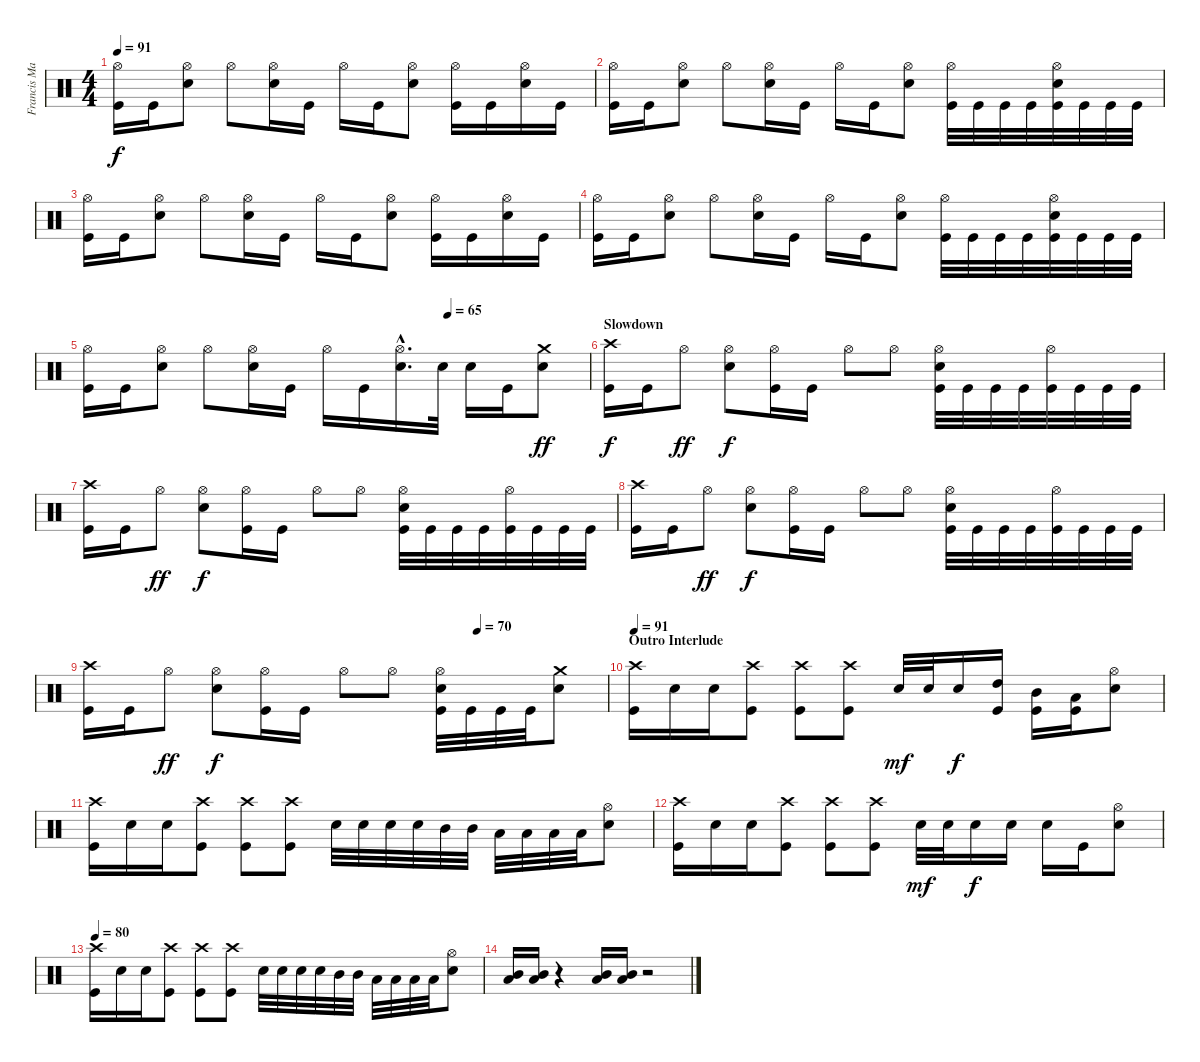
\track ("Francis Mark" "Francis Ma") {instrument percussion}
\staff {score}
\articulation defaults
\ts (4 4)
\tempo 91
\clef neutral
\ks c
("Hi-Hat (open)" "Kick (hit)").16{dy f} "Kick (hit)".16 ("Hi-Hat (open)" "Electric Snare (hit)").8 "Hi-Hat (open)".8 ("Hi-Hat (open)" "Electric Snare (hit)").16 "Kick (hit)".16 "Hi-Hat (open)".16 "Kick (hit)".16 ("Hi-Hat (open)" "Electric Snare (hit)").8 ("Hi-Hat (open)" "Kick (hit)").16 "Kick (hit)".16 ("Hi-Hat (open)" "Electric Snare (hit)").16 "Kick (hit)".16 |
("Hi-Hat (open)" "Kick (hit)").16 "Kick (hit)".16 ("Hi-Hat (open)" "Electric Snare (hit)").8 "Hi-Hat (open)".8 ("Hi-Hat (open)" "Electric Snare (hit)").16 "Kick (hit)".16 "Hi-Hat (open)".16 "Kick (hit)".16 ("Hi-Hat (open)" "Electric Snare (hit)").8 ("Hi-Hat (open)" "Kick (hit)").32 "Kick (hit)".32 "Kick (hit)".32 "Kick (hit)".32 ("Hi-Hat (open)" "Electric Snare (hit)" "Kick (hit)").32 "Kick (hit)".32 "Kick (hit)".32 "Kick (hit)".32 |
("Hi-Hat (open)" "Kick (hit)").16 "Kick (hit)".16 ("Hi-Hat (open)" "Electric Snare (hit)").8 "Hi-Hat (open)".8 ("Hi-Hat (open)" "Electric Snare (hit)").16 "Kick (hit)".16 "Hi-Hat (open)".16 "Kick (hit)".16 ("Hi-Hat (open)" "Electric Snare (hit)").8 ("Hi-Hat (open)" "Kick (hit)").16 "Kick (hit)".16 ("Hi-Hat (open)" "Electric Snare (hit)").16 "Kick (hit)".16 |
("Hi-Hat (open)" "Kick (hit)").16 "Kick (hit)".16 ("Hi-Hat (open)" "Electric Snare (hit)").8 "Hi-Hat (open)".8 ("Hi-Hat (open)" "Electric Snare (hit)").16 "Kick (hit)".16 "Hi-Hat (open)".16 "Kick (hit)".16 ("Hi-Hat (open)" "Electric Snare (hit)").8 ("Hi-Hat (open)" "Kick (hit)").32 "Kick (hit)".32 "Kick (hit)".32 "Kick (hit)".32 ("Hi-Hat (open)" "Electric Snare (hit)" "Kick (hit)").32 "Kick (hit)".32 "Kick (hit)".32 "Kick (hit)".32 |
\tempo (65 0.71875)
("Hi-Hat (open)" "Kick (hit)").16 "Kick (hit)".16 ("Hi-Hat (open)" "Electric Snare (hit)").8 "Hi-Hat (open)".8 ("Hi-Hat (open)" "Electric Snare (hit)").16 "Kick (hit)".16 "Hi-Hat (open)".16 "Kick (hit)".16 ("Hi-Hat (open)"{hac} "Electric Snare (hit)"{hac}).16{d} "Electric Snare (hit)".32 "Electric Snare (hit)".16 "Kick (hit)".16 ("Crash medium (hit)" "Electric Snare (hit)").8{dy ff} |
\section ("" "Slowdown")
("Crash high (hit)" "Kick (hit)").16{dy f} "Kick (hit)".16 "Hi-Hat (open)".8{dy ff} ("Hi-Hat (open)" "Electric Snare (hit)").8{dy f} ("Hi-Hat (open)" "Kick (hit)").16 "Kick (hit)".16 "Hi-Hat (open)".8 "Hi-Hat (open)".8 ("Hi-Hat (open)" "Electric Snare (hit)" "Kick (hit)").32 "Kick (hit)".32 "Kick (hit)".32 "Kick (hit)".32 ("Hi-Hat (open)" "Kick (hit)").32 "Kick (hit)".32 "Kick (hit)".32 "Kick (hit)".32 |
("Crash high (hit)" "Kick (hit)").16 "Kick (hit)".16 "Hi-Hat (open)".8{dy ff} ("Hi-Hat (open)" "Electric Snare (hit)").8{dy f} ("Hi-Hat (open)" "Kick (hit)").16 "Kick (hit)".16 "Hi-Hat (open)".8 "Hi-Hat (open)".8 ("Hi-Hat (open)" "Electric Snare (hit)" "Kick (hit)").32 "Kick (hit)".32 "Kick (hit)".32 "Kick (hit)".32 ("Hi-Hat (open)" "Kick (hit)").32 "Kick (hit)".32 "Kick (hit)".32 "Kick (hit)".32 |
("Crash high (hit)" "Kick (hit)").16 "Kick (hit)".16 "Hi-Hat (open)".8{dy ff} ("Hi-Hat (open)" "Electric Snare (hit)").8{dy f} ("Hi-Hat (open)" "Kick (hit)").16 "Kick (hit)".16 "Hi-Hat (open)".8 "Hi-Hat (open)".8 ("Hi-Hat (open)" "Electric Snare (hit)" "Kick (hit)").32 "Kick (hit)".32 "Kick (hit)".32 "Kick (hit)".32 ("Hi-Hat (open)" "Kick (hit)").32 "Kick (hit)".32 "Kick (hit)".32 "Kick (hit)".32 |
\tempo (70 0.75)
("Crash high (hit)" "Kick (hit)").16 "Kick (hit)".16 "Hi-Hat (open)".8{dy ff} ("Hi-Hat (open)" "Electric Snare (hit)").8{dy f} ("Hi-Hat (open)" "Kick (hit)").16 "Kick (hit)".16 "Hi-Hat (open)".8 "Hi-Hat (open)".8 ("Hi-Hat (open)" "Electric Snare (hit)" "Kick (hit)").32 "Kick (hit)".32 "Kick (hit)".32 "Kick (hit)".32 ("Crash medium (hit)" "Electric Snare (hit)").8 |
\section ("" "Outro Interlude")
\tempo 91
("Crash high (hit)" "Kick (hit)").16 "Electric Snare (hit)".16 "Electric Snare (hit)".16 ("Crash high (hit)" "Kick (hit)").8 ("Crash high (hit)" "Kick (hit)").8 ("Crash high (hit)" "Kick (hit)").8 "Electric Snare (hit)".32{dy mf} "Electric Snare (hit)".32 "Electric Snare (hit)".16{dy f} ("High Tom (hit)" "Kick (hit)").16 ("Mid Tom (hit)" "Kick (hit)").16 ("Low Tom (hit)" "Kick (hit)").16 ("Hi-Hat (open)" "Electric Snare (hit)").8 |
("Crash high (hit)" "Kick (hit)").16 "Electric Snare (hit)".16 "Electric Snare (hit)".16 ("Crash high (hit)" "Kick (hit)").8 ("Crash high (hit)" "Kick (hit)").8 ("Crash high (hit)" "Kick (hit)").8 "Electric Snare (hit)".32 "Electric Snare (hit)".32 "Electric Snare (hit)".32 "Electric Snare (hit)".32 "Mid Tom (hit)".32 "Mid Tom (hit)".32 "Low Tom (hit)".32 "Low Tom (hit)".32 "Low Tom (hit)".32 "Low Tom (hit)".32 ("Hi-Hat (open)" "Electric Snare (hit)").8 |
("Crash high (hit)" "Kick (hit)").16 "Electric Snare (hit)".16 "Electric Snare (hit)".16 ("Crash high (hit)" "Kick (hit)").8 ("Crash high (hit)" "Kick (hit)").8 ("Crash high (hit)" "Kick (hit)").8 "Electric Snare (hit)".32{dy mf} "Electric Snare (hit)".32 "Electric Snare (hit)".16{dy f} "Electric Snare (hit)".16 "Electric Snare (hit)".16 "Kick (hit)".16 ("Hi-Hat (open)" "Electric Snare (hit)").8 |
\tempo 80
("Crash high (hit)" "Kick (hit)").16 "Electric Snare (hit)".16 "Electric Snare (hit)".16 ("Crash high (hit)" "Kick (hit)").8 ("Crash high (hit)" "Kick (hit)").8 ("Crash high (hit)" "Kick (hit)").8 "Electric Snare (hit)".32 "Electric Snare (hit)".32 "Electric Snare (hit)".32 "Electric Snare (hit)".32 "Mid Tom (hit)".32 "Mid Tom (hit)".32 "Low Tom (hit)".32 "Low Tom (hit)".32 "Low Tom (hit)".32 "Low Tom (hit)".32 ("Hi-Hat (open)" "Electric Snare (hit)").8 |
("Mid Tom (hit)" "Low Tom (hit)").16 ("Mid Tom (hit)" "Low Tom (hit)").16 r.4 ("Mid Tom (hit)" "Low Tom (hit)").16 ("Mid Tom (hit)" "Low Tom (hit)").16 r.2
